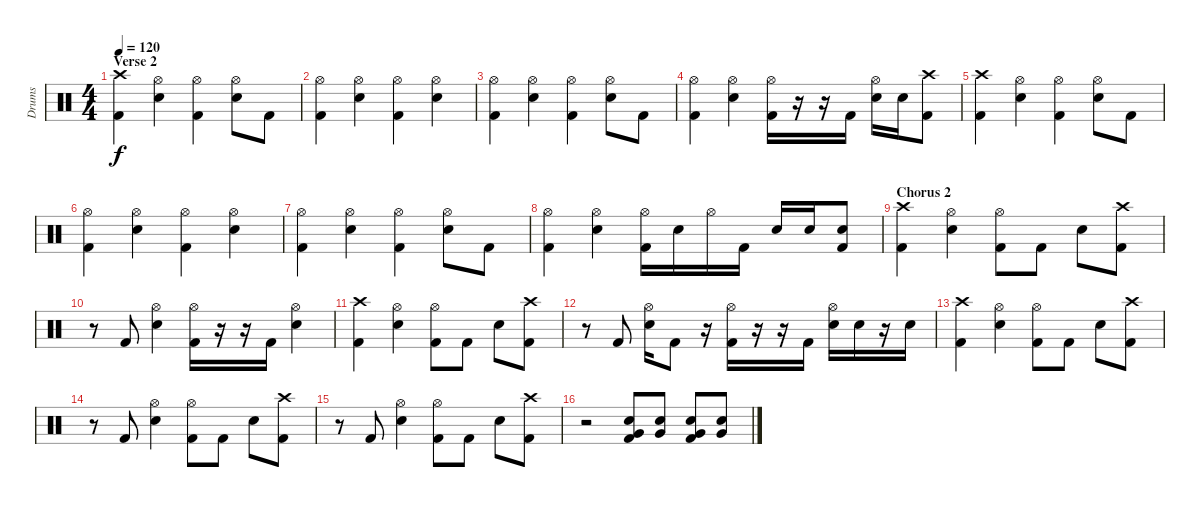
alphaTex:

\track ("Drums" "Drums") {instrument percussion}
\staff {score}
\articulation defaults
\ts (4 4)
\section ("" "Verse 2")
\tempo 120
\clef neutral
\ks c
("Crash high (hit)" "Kick (hit) 2").4{dy f} ("Hi-Hat (open)" "Electric Snare (hit)").4 ("Hi-Hat (open)" "Kick (hit) 2").4 ("Hi-Hat (open)" "Electric Snare (hit)").8 "Kick (hit) 2".8 |
("Hi-Hat (open)" "Kick (hit) 2").4 ("Hi-Hat (open)" "Electric Snare (hit)").4 ("Hi-Hat (open)" "Kick (hit) 2").4 ("Hi-Hat (open)" "Electric Snare (hit)").4 |
("Hi-Hat (open)" "Kick (hit) 2").4 ("Hi-Hat (open)" "Electric Snare (hit)").4 ("Hi-Hat (open)" "Kick (hit) 2").4 ("Hi-Hat (open)" "Electric Snare (hit)").8 "Kick (hit) 2".8 |
("Hi-Hat (open)" "Kick (hit) 2").4 ("Hi-Hat (open)" "Electric Snare (hit)").4 ("Hi-Hat (open)" "Kick (hit) 2").16 r.16 r.16 "Kick (hit) 2".16 ("Hi-Hat (open)" "Electric Snare (hit)").16 "Electric Snare (hit)".16 ("Crash high (hit)" "Kick (hit) 2").8 |
("Crash high (hit)" "Kick (hit) 2").4 ("Hi-Hat (open)" "Electric Snare (hit)").4 ("Hi-Hat (open)" "Kick (hit) 2").4 ("Hi-Hat (open)" "Electric Snare (hit)").8 "Kick (hit) 2".8 |
("Hi-Hat (open)" "Kick (hit) 2").4 ("Hi-Hat (open)" "Electric Snare (hit)").4 ("Hi-Hat (open)" "Kick (hit) 2").4 ("Hi-Hat (open)" "Electric Snare (hit)").4 |
("Hi-Hat (open)" "Kick (hit) 2").4 ("Hi-Hat (open)" "Electric Snare (hit)").4 ("Hi-Hat (open)" "Kick (hit) 2").4 ("Hi-Hat (open)" "Electric Snare (hit)").8 "Kick (hit) 2".8 |
("Hi-Hat (open)" "Kick (hit) 2").4 ("Hi-Hat (open)" "Electric Snare (hit)").4 ("Hi-Hat (open)" "Kick (hit) 2").16 "Electric Snare (hit)".16 "Hi-Hat (open)".16 "Kick (hit) 2".16 "Electric Snare (hit)".16 "Electric Snare (hit)".16 ("Electric Snare (hit)" "Kick (hit) 2").8 |
\section ("" "Chorus 2")
("Crash high (hit)" "Kick (hit) 2").4 ("Hi-Hat (open)" "Electric Snare (hit)").4 ("Hi-Hat (open)" "Kick (hit) 2").8 "Kick (hit) 2".8 "Electric Snare (hit)".8 ("Crash high (hit)" "Kick (hit) 2").8 |
r.8 "Kick (hit) 2".8 ("Hi-Hat (open)" "Electric Snare (hit)").4 ("Hi-Hat (open)" "Kick (hit) 2").16 r.16 r.16 "Kick (hit) 2".16 ("Hi-Hat (open)" "Electric Snare (hit)").4 |
("Crash high (hit)" "Kick (hit) 2").4 ("Hi-Hat (open)" "Electric Snare (hit)").4 ("Hi-Hat (open)" "Kick (hit) 2").8 "Kick (hit) 2".8 "Electric Snare (hit)".8 ("Crash high (hit)" "Kick (hit) 2").8 |
r.8 "Kick (hit) 2".8 ("Hi-Hat (open)" "Electric Snare (hit)").16 "Kick (hit) 2".8 r.16 ("Hi-Hat (open)" "Kick (hit) 2").16 r.16 r.16 "Kick (hit) 2".16 ("Hi-Hat (open)" "Electric Snare (hit)").16 "Electric Snare (hit)".16 r.16 "Electric Snare (hit)".16 |
("Crash high (hit)" "Kick (hit) 2").4 ("Hi-Hat (open)" "Electric Snare (hit)").4 ("Hi-Hat (open)" "Kick (hit) 2").8 "Kick (hit) 2".8 "Electric Snare (hit)".8 ("Crash high (hit)" "Kick (hit) 2").8 |
r.8 "Kick (hit) 2".8 ("Hi-Hat (open)" "Electric Snare (hit)").4 ("Hi-Hat (open)" "Kick (hit) 2").8 "Kick (hit) 2".8 "Electric Snare (hit)".8 ("Crash high (hit)" "Kick (hit) 2").8 |
r.8 "Kick (hit) 2".8 ("Hi-Hat (open)" "Electric Snare (hit)").4 ("Hi-Hat (open)" "Kick (hit) 2").8 "Kick (hit) 2".8 "Electric Snare (hit)".8 ("Crash high (hit)" "Kick (hit) 2").8 |
r.2 ("Electric Snare (hit)" "Very Low Tom (hit)" "Kick (hit) 2").8 ("Electric Snare (hit)" "Very Low Tom (hit)").8 ("Electric Snare (hit)" "Very Low Tom (hit)" "Kick (hit) 2").8 ("Electric Snare (hit)" "Very Low Tom (hit)").8
